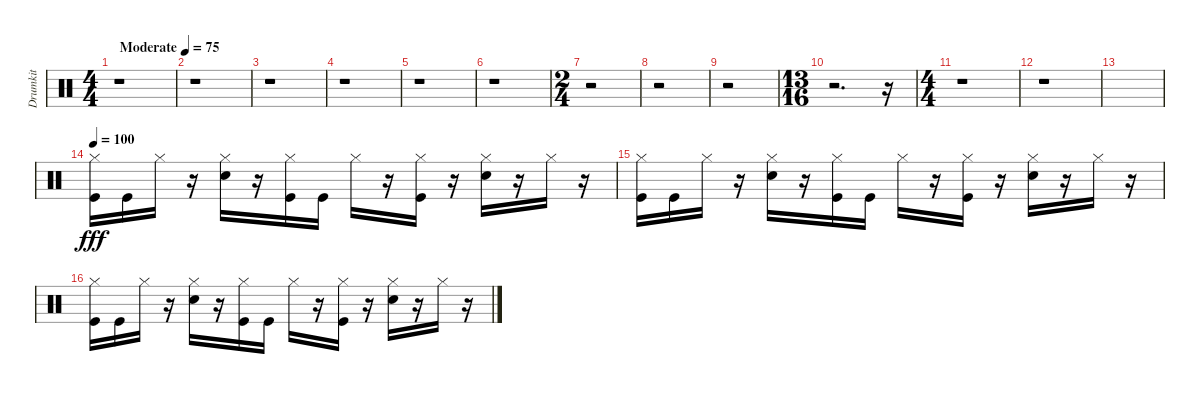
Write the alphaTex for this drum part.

\track ("Drumkit" "Drumkit") {instrument percussion}
\staff {score}
\articulation defaults
\ts (4 4)
\tempo (75 "Moderate")
\clef neutral
\ks c
r.1{dy fff} |
r.1 |
r.1 |
r.1 |
r.1 |
r.1 |
\ts (2 4)
r.2 |
r.2 |
r.2 |
\ts (13 16)
r.2{d} r.16 |
\ts (4 4)
r.1 |
r.1 |
|
\tempo 100
("Hi-Hat (closed)" "Kick (hit)").16 "Kick (hit)".16 "Hi-Hat (closed)".16 r.16 ("Hi-Hat (closed)" "Snare (hit) 2").16 r.16 ("Hi-Hat (closed)" "Kick (hit)").16 "Kick (hit)".16 "Hi-Hat (closed)".16 r.16 ("Hi-Hat (closed)" "Kick (hit)").16 r.16 ("Hi-Hat (closed)" "Snare (hit) 2").16 r.16 "Hi-Hat (closed)".16 r.16 |
("Hi-Hat (closed)" "Kick (hit)").16 "Kick (hit)".16 "Hi-Hat (closed)".16 r.16 ("Hi-Hat (closed)" "Snare (hit) 2").16 r.16 ("Hi-Hat (closed)" "Kick (hit)").16 "Kick (hit)".16 "Hi-Hat (closed)".16 r.16 ("Hi-Hat (closed)" "Kick (hit)").16 r.16 ("Hi-Hat (closed)" "Snare (hit) 2").16 r.16 "Hi-Hat (closed)".16 r.16 |
("Hi-Hat (closed)" "Kick (hit)").16 "Kick (hit)".16 "Hi-Hat (closed)".16 r.16 ("Hi-Hat (closed)" "Snare (hit) 2").16 r.16 ("Hi-Hat (closed)" "Kick (hit)").16 "Kick (hit)".16 "Hi-Hat (closed)".16 r.16 ("Hi-Hat (closed)" "Kick (hit)").16 r.16 ("Hi-Hat (closed)" "Snare (hit) 2").16 r.16 "Hi-Hat (closed)".16 r.16
